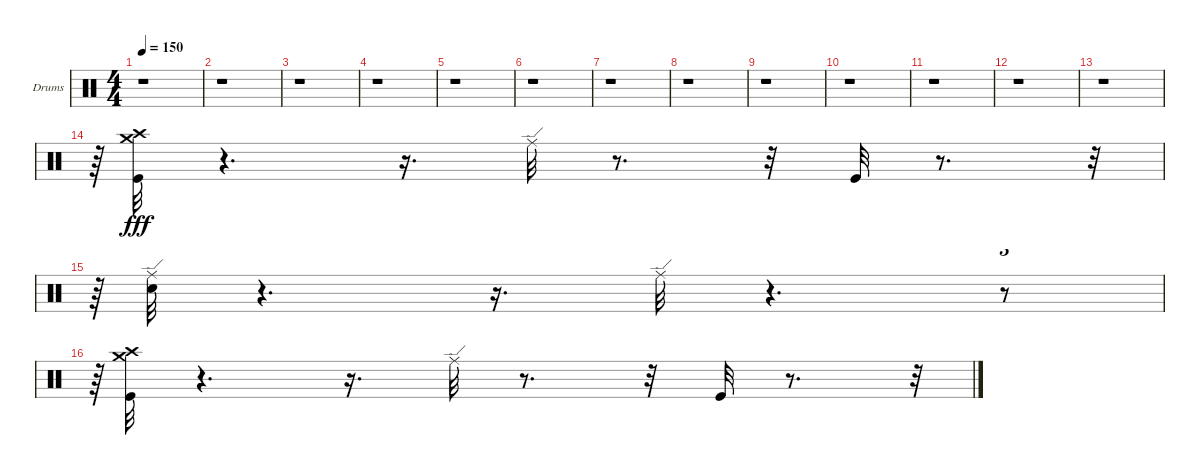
\bracketExtendMode groupsimilarinstruments
\firstSystemTrackNameOrientation horizontal
\otherSystemsTrackNameOrientation horizontal
\track ("Dave McClain" "Drums") {mute instrument percussion}
\staff {score}
\articulation defaults
\ts (4 4)
\tempo 150
\clef neutral
\ks c
r.1{dy fff} |
r.1 |
r.1 |
r.1 |
r.1 |
r.1 |
r.1 |
r.1 |
r.1 |
r.1 |
r.1 |
r.1 |
r.1 |
r.64{tu (3 2)} ("Crash high (hit)" "Crash medium (hit)" "Kick (hit)").32 r.4{d} r.16{d} "Ride (edge)".32 r.8{d} r.32 "Kick (hit)".32 r.8{d} r.32{tu (3 2)} |
r.64{tu (3 2)} ("Ride (edge)" "Snare (hit) 2").32 r.4{d} r.16{d} "Ride (edge)".32 r.4{d} r.8{tu (3 2)} |
r.64{tu (3 2)} ("Crash medium (hit)" "Crash high (hit)" "Kick (hit)").32 r.4{d} r.16{d} "Ride (edge)".32 r.8{d} r.32 "Kick (hit)".32 r.8{d} r.32{tu (3 2)}
